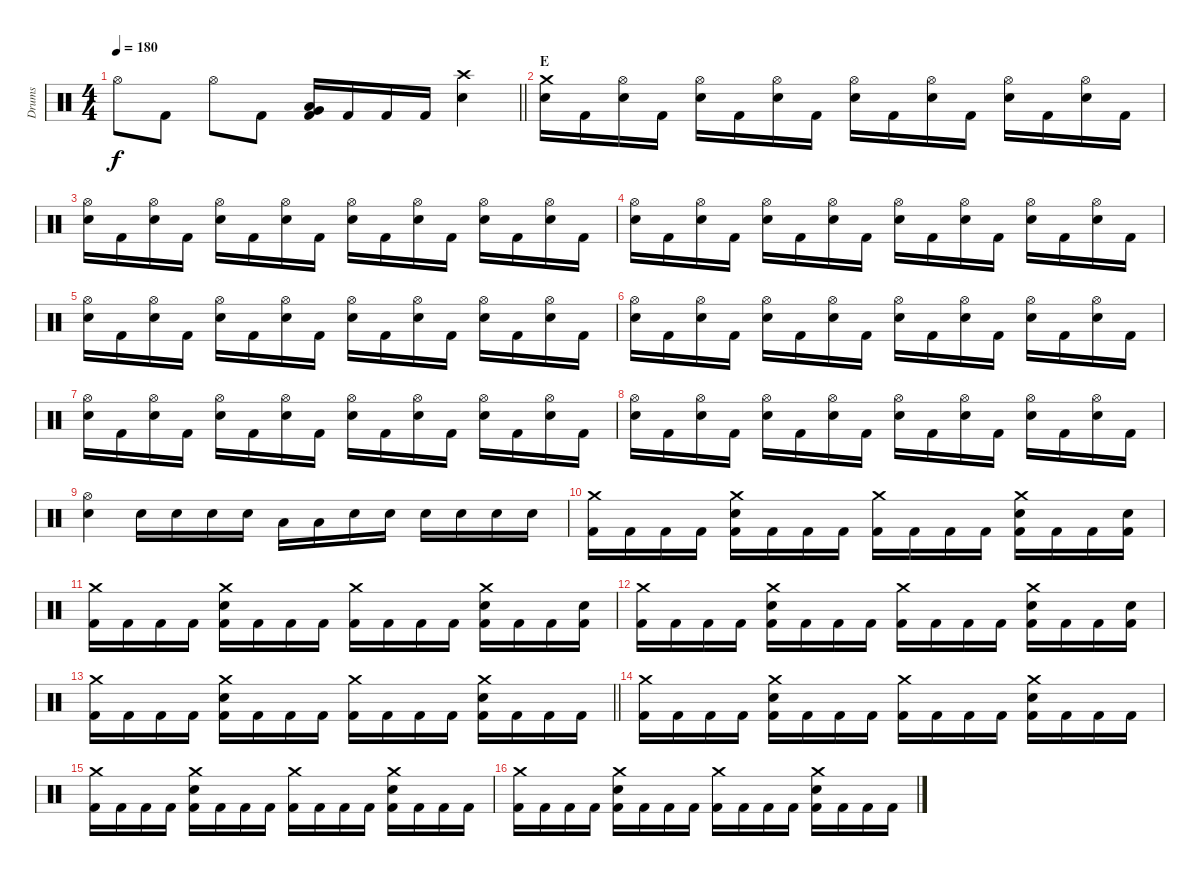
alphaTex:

\track ("Drums" "Drums") {instrument percussion}
\staff {score}
\articulation defaults
\ts (4 4)
\tempo 180
\clef neutral
\barLineRight lightlight
\ks c "Hi-Hat (open)".8{dy f} "Kick (hit) 2".8 "Hi-Hat (open)".8 "Kick (hit) 2".8
("Low Tom (hit)" "Very Low Tom (hit)" "Kick (hit) 2").16 "Kick (hit) 2".16 "Kick (hit) 2".16 "Kick (hit) 2".16 ("Crash high (hit)" "Electric Snare (hit)").4 |
\section ("" "E")
("Crash medium (hit)" "Electric Snare (hit)").16 "Kick (hit) 2".16 ("Hi-Hat (open)" "Electric Snare (hit)").16 "Kick (hit) 2".16 ("Hi-Hat (open)" "Electric Snare (hit)").16 "Kick (hit) 2".16 ("Hi-Hat (open)" "Electric Snare (hit)").16 "Kick (hit) 2".16 ("Hi-Hat (open)" "Electric Snare (hit)").16 "Kick (hit) 2".16 ("Hi-Hat (open)" "Electric Snare (hit)").16 "Kick (hit) 2".16 ("Hi-Hat (open)" "Electric Snare (hit)").16 "Kick (hit) 2".16 ("Hi-Hat (open)" "Electric Snare (hit)").16 "Kick (hit) 2".16 |
("Hi-Hat (open)" "Electric Snare (hit)").16 "Kick (hit) 2".16 ("Hi-Hat (open)" "Electric Snare (hit)").16 "Kick (hit) 2".16 ("Hi-Hat (open)" "Electric Snare (hit)").16 "Kick (hit) 2".16 ("Hi-Hat (open)" "Electric Snare (hit)").16 "Kick (hit) 2".16 ("Hi-Hat (open)" "Electric Snare (hit)").16 "Kick (hit) 2".16 ("Hi-Hat (open)" "Electric Snare (hit)").16 "Kick (hit) 2".16 ("Hi-Hat (open)" "Electric Snare (hit)").16 "Kick (hit) 2".16 ("Hi-Hat (open)" "Electric Snare (hit)").16 "Kick (hit) 2".16 |
("Hi-Hat (open)" "Electric Snare (hit)").16 "Kick (hit) 2".16 ("Hi-Hat (open)" "Electric Snare (hit)").16 "Kick (hit) 2".16 ("Hi-Hat (open)" "Electric Snare (hit)").16 "Kick (hit) 2".16 ("Hi-Hat (open)" "Electric Snare (hit)").16 "Kick (hit) 2".16 ("Hi-Hat (open)" "Electric Snare (hit)").16 "Kick (hit) 2".16 ("Hi-Hat (open)" "Electric Snare (hit)").16 "Kick (hit) 2".16 ("Hi-Hat (open)" "Electric Snare (hit)").16 "Kick (hit) 2".16 ("Hi-Hat (open)" "Electric Snare (hit)").16 "Kick (hit) 2".16 |
("Hi-Hat (open)" "Electric Snare (hit)").16 "Kick (hit) 2".16 ("Hi-Hat (open)" "Electric Snare (hit)").16 "Kick (hit) 2".16 ("Hi-Hat (open)" "Electric Snare (hit)").16 "Kick (hit) 2".16 ("Hi-Hat (open)" "Electric Snare (hit)").16 "Kick (hit) 2".16 ("Hi-Hat (open)" "Electric Snare (hit)").16 "Kick (hit) 2".16 ("Hi-Hat (open)" "Electric Snare (hit)").16 "Kick (hit) 2".16 ("Hi-Hat (open)" "Electric Snare (hit)").16 "Kick (hit) 2".16 ("Hi-Hat (open)" "Electric Snare (hit)").16 "Kick (hit) 2".16 |
("Hi-Hat (open)" "Electric Snare (hit)").16 "Kick (hit) 2".16 ("Hi-Hat (open)" "Electric Snare (hit)").16 "Kick (hit) 2".16 ("Hi-Hat (open)" "Electric Snare (hit)").16 "Kick (hit) 2".16 ("Hi-Hat (open)" "Electric Snare (hit)").16 "Kick (hit) 2".16 ("Hi-Hat (open)" "Electric Snare (hit)").16 "Kick (hit) 2".16 ("Hi-Hat (open)" "Electric Snare (hit)").16 "Kick (hit) 2".16 ("Hi-Hat (open)" "Electric Snare (hit)").16 "Kick (hit) 2".16 ("Hi-Hat (open)" "Electric Snare (hit)").16 "Kick (hit) 2".16 |
("Hi-Hat (open)" "Electric Snare (hit)").16 "Kick (hit) 2".16 ("Hi-Hat (open)" "Electric Snare (hit)").16 "Kick (hit) 2".16 ("Hi-Hat (open)" "Electric Snare (hit)").16 "Kick (hit) 2".16 ("Hi-Hat (open)" "Electric Snare (hit)").16 "Kick (hit) 2".16 ("Hi-Hat (open)" "Electric Snare (hit)").16 "Kick (hit) 2".16 ("Hi-Hat (open)" "Electric Snare (hit)").16 "Kick (hit) 2".16 ("Hi-Hat (open)" "Electric Snare (hit)").16 "Kick (hit) 2".16 ("Hi-Hat (open)" "Electric Snare (hit)").16 "Kick (hit) 2".16 |
("Hi-Hat (open)" "Electric Snare (hit)").16 "Kick (hit) 2".16 ("Hi-Hat (open)" "Electric Snare (hit)").16 "Kick (hit) 2".16 ("Hi-Hat (open)" "Electric Snare (hit)").16 "Kick (hit) 2".16 ("Hi-Hat (open)" "Electric Snare (hit)").16 "Kick (hit) 2".16 ("Hi-Hat (open)" "Electric Snare (hit)").16 "Kick (hit) 2".16 ("Hi-Hat (open)" "Electric Snare (hit)").16 "Kick (hit) 2".16 ("Hi-Hat (open)" "Electric Snare (hit)").16 "Kick (hit) 2".16 ("Hi-Hat (open)" "Electric Snare (hit)").16 "Kick (hit) 2".16 |
("Hi-Hat (open)" "Electric Snare (hit)").4 "Electric Snare (hit)".16 "Electric Snare (hit)".16 "Electric Snare (hit)".16 "Electric Snare (hit)".16 "Low Tom (hit)".16 "Low Tom (hit)".16 "Electric Snare (hit)".16 "Electric Snare (hit)".16 "Electric Snare (hit)".16 "Electric Snare (hit)".16 "Electric Snare (hit)".16 "Electric Snare (hit)".16 |
("Crash medium (hit)" "Kick (hit) 2").16 "Kick (hit) 2".16 "Kick (hit) 2".16 "Kick (hit) 2".16 ("Crash medium (hit)" "Electric Snare (hit)" "Kick (hit) 2").16 "Kick (hit) 2".16 "Kick (hit) 2".16 "Kick (hit) 2".16 ("Crash medium (hit)" "Kick (hit) 2").16 "Kick (hit) 2".16 "Kick (hit) 2".16 "Kick (hit) 2".16 ("Crash medium (hit)" "Electric Snare (hit)" "Kick (hit) 2").16 "Kick (hit) 2".16 "Kick (hit) 2".16 ("Electric Snare (hit)" "Kick (hit) 2").16 |
("Crash medium (hit)" "Kick (hit) 2").16 "Kick (hit) 2".16 "Kick (hit) 2".16 "Kick (hit) 2".16 ("Crash medium (hit)" "Electric Snare (hit)" "Kick (hit) 2").16 "Kick (hit) 2".16 "Kick (hit) 2".16 "Kick (hit) 2".16 ("Crash medium (hit)" "Kick (hit) 2").16 "Kick (hit) 2".16 "Kick (hit) 2".16 "Kick (hit) 2".16 ("Crash medium (hit)" "Electric Snare (hit)" "Kick (hit) 2").16 "Kick (hit) 2".16 "Kick (hit) 2".16 ("Electric Snare (hit)" "Kick (hit) 2").16 |
("Crash medium (hit)" "Kick (hit) 2").16 "Kick (hit) 2".16 "Kick (hit) 2".16 "Kick (hit) 2".16 ("Crash medium (hit)" "Electric Snare (hit)" "Kick (hit) 2").16 "Kick (hit) 2".16 "Kick (hit) 2".16 "Kick (hit) 2".16 ("Crash medium (hit)" "Kick (hit) 2").16 "Kick (hit) 2".16 "Kick (hit) 2".16 "Kick (hit) 2".16 ("Crash medium (hit)" "Electric Snare (hit)" "Kick (hit) 2").16 "Kick (hit) 2".16 "Kick (hit) 2".16 ("Electric Snare (hit)" "Kick (hit) 2").16 |
\barLineRight lightlight
("Crash medium (hit)" "Kick (hit) 2").16 "Kick (hit) 2".16 "Kick (hit) 2".16 "Kick (hit) 2".16 ("Crash medium (hit)" "Electric Snare (hit)" "Kick (hit) 2").16 "Kick (hit) 2".16 "Kick (hit) 2".16 "Kick (hit) 2".16 ("Crash medium (hit)" "Kick (hit) 2").16 "Kick (hit) 2".16 "Kick (hit) 2".16 "Kick (hit) 2".16 ("Crash medium (hit)" "Electric Snare (hit)" "Kick (hit) 2").16 "Kick (hit) 2".16 "Kick (hit) 2".16 "Kick (hit) 2".16 |
("Crash medium (hit)" "Kick (hit) 2").16 "Kick (hit) 2".16 "Kick (hit) 2".16 "Kick (hit) 2".16 ("Crash medium (hit)" "Electric Snare (hit)" "Kick (hit) 2").16 "Kick (hit) 2".16 "Kick (hit) 2".16 "Kick (hit) 2".16 ("Crash medium (hit)" "Kick (hit) 2").16 "Kick (hit) 2".16 "Kick (hit) 2".16 "Kick (hit) 2".16 ("Crash medium (hit)" "Electric Snare (hit)" "Kick (hit) 2").16 "Kick (hit) 2".16 "Kick (hit) 2".16 "Kick (hit) 2".16 |
("Crash medium (hit)" "Kick (hit) 2").16 "Kick (hit) 2".16 "Kick (hit) 2".16 "Kick (hit) 2".16 ("Crash medium (hit)" "Electric Snare (hit)" "Kick (hit) 2").16 "Kick (hit) 2".16 "Kick (hit) 2".16 "Kick (hit) 2".16 ("Crash medium (hit)" "Kick (hit) 2").16 "Kick (hit) 2".16 "Kick (hit) 2".16 "Kick (hit) 2".16 ("Crash medium (hit)" "Electric Snare (hit)" "Kick (hit) 2").16 "Kick (hit) 2".16 "Kick (hit) 2".16 "Kick (hit) 2".16 |
("Crash medium (hit)" "Kick (hit) 2").16 "Kick (hit) 2".16 "Kick (hit) 2".16 "Kick (hit) 2".16 ("Crash medium (hit)" "Electric Snare (hit)" "Kick (hit) 2").16 "Kick (hit) 2".16 "Kick (hit) 2".16 "Kick (hit) 2".16 ("Crash medium (hit)" "Kick (hit) 2").16 "Kick (hit) 2".16 "Kick (hit) 2".16 "Kick (hit) 2".16 ("Crash medium (hit)" "Electric Snare (hit)" "Kick (hit) 2").16 "Kick (hit) 2".16 "Kick (hit) 2".16 "Kick (hit) 2".16
